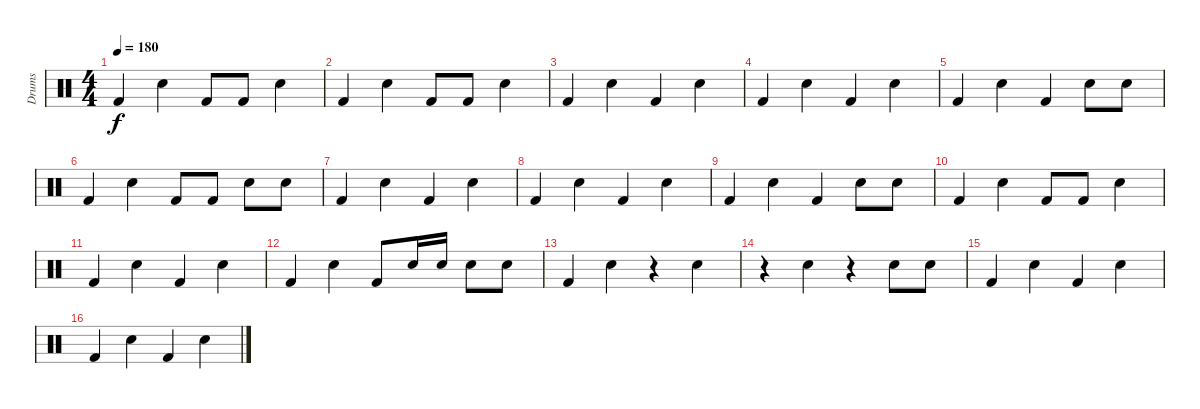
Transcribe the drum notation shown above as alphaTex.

\track ("Drums" "Drums") {instrument percussion}
\staff {score}
\articulation defaults
\ts (4 4)
\tempo 180
\clef neutral
\ks c "Kick (hit) 2".4{dy f} "Snare (hit) 2".4 "Kick (hit) 2".8 "Kick (hit) 2".8 "Snare (hit) 2".4
|
"Kick (hit) 2".4 "Snare (hit) 2".4 "Kick (hit) 2".8 "Kick (hit) 2".8 "Snare (hit) 2".4 |
"Kick (hit) 2".4 "Snare (hit) 2".4 "Kick (hit) 2".4 "Snare (hit) 2".4 |
"Kick (hit) 2".4 "Snare (hit) 2".4 "Kick (hit) 2".4 "Snare (hit) 2".4 |
"Kick (hit) 2".4 "Snare (hit) 2".4 "Kick (hit) 2".4 "Snare (hit) 2".8 "Snare (hit) 2".8 |
"Kick (hit) 2".4 "Snare (hit) 2".4 "Kick (hit) 2".8 "Kick (hit) 2".8 "Snare (hit) 2".8 "Snare (hit) 2".8 |
"Kick (hit) 2".4 "Snare (hit) 2".4 "Kick (hit) 2".4 "Snare (hit) 2".4 |
"Kick (hit) 2".4 "Snare (hit) 2".4 "Kick (hit) 2".4 "Snare (hit) 2".4 |
"Kick (hit) 2".4 "Snare (hit) 2".4 "Kick (hit) 2".4 "Snare (hit) 2".8 "Snare (hit) 2".8 |
"Kick (hit) 2".4 "Snare (hit) 2".4 "Kick (hit) 2".8 "Kick (hit) 2".8 "Metronome (bell)".4 |
"Kick (hit) 2".4 "Snare (hit) 2".4 "Kick (hit) 2".4 "Snare (hit) 2".4 |
"Kick (hit) 2".4 "Snare (hit) 2".4 "Kick (hit) 2".8 "Snare (hit) 2".16 "Snare (hit) 2".16 "Snare (hit) 2".8 "Snare (hit) 2".8 |
"Kick (hit) 2".4 "Snare (hit) 2".4 r.4 "Snare (hit) 2".4 |
r.4 "Snare (hit) 2".4 r.4 "Snare (hit) 2".8 "Snare (hit) 2".8 |
"Kick (hit) 2".4 "Snare (hit) 2".4 "Kick (hit) 2".4 "Snare (hit) 2".4 |
"Kick (hit) 2".4 "Snare (hit) 2".4 "Kick (hit) 2".4 "Snare (hit) 2".4
